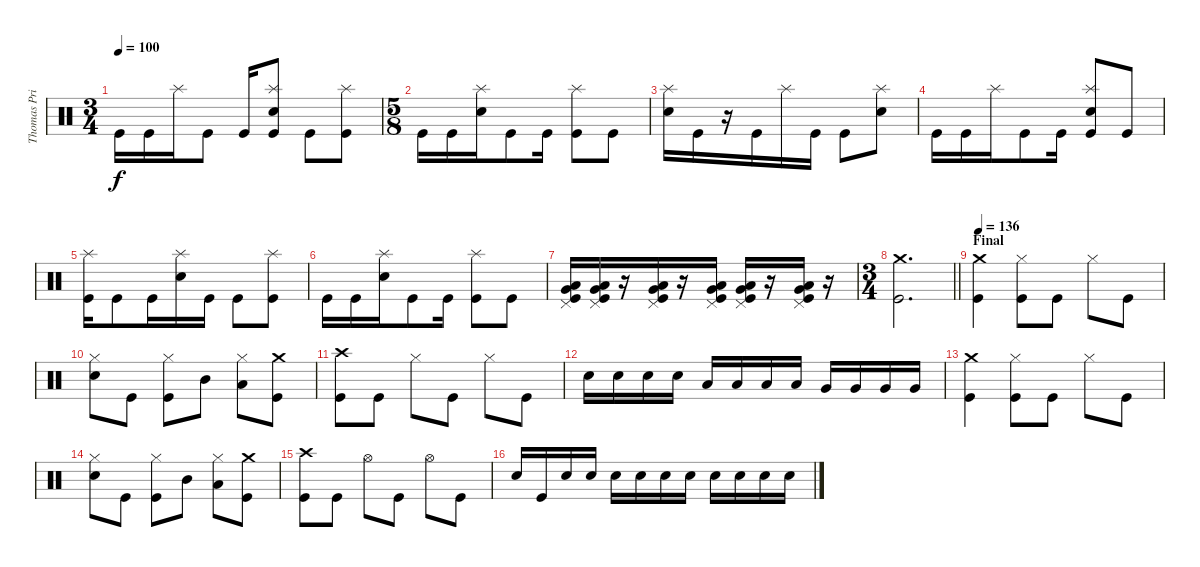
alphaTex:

\track ("Thomas Pridgen [Drum]" "Thomas Pri") {instrument percussion}
\staff {score}
\articulation defaults
\ts (3 4)
\tempo 100
\clef neutral
\ks c "Kick (hit)".16{dy f} "Kick (hit)".16 "Splash (hit)".16 "Kick (hit)".8 "Kick (hit)".16
("Splash (hit)" "Electric Snare (hit)" "Kick (hit)").8 "Kick (hit)".8 ("Splash (hit)" "Kick (hit)").8 |
\ts (5 8)
"Kick (hit)".16 "Kick (hit)".16 ("Splash (hit)" "Electric Snare (hit)").16 "Kick (hit)".8 "Kick (hit)".16 ("Splash (hit)" "Kick (hit)").8 "Kick (hit)".8 |
("Splash (hit)" "Electric Snare (hit)").16 "Kick (hit)".16 r.16 "Kick (hit)".16 "Splash (hit)".16 "Kick (hit)".16 "Kick (hit)".8 ("Splash (hit)" "Electric Snare (hit)").8 |
"Kick (hit)".16 "Kick (hit)".16 "Splash (hit)".16 "Kick (hit)".8 "Kick (hit)".16 ("Splash (hit)" "Electric Snare (hit)" "Kick (hit)").8 "Kick (hit)".8 |
("Splash (hit)" "Kick (hit)").16 "Kick (hit)".8 "Kick (hit)".16 ("Splash (hit)" "Electric Snare (hit)").16 "Kick (hit)".16 "Kick (hit)".8 ("Splash (hit)" "Kick (hit)").8 |
"Kick (hit)".16 "Kick (hit)".16 ("Splash (hit)" "Electric Snare (hit)").16 "Kick (hit)".8 "Kick (hit)".16 ("Splash (hit)" "Kick (hit)").8 "Kick (hit)".8 |
("Pedal Hi-Hat (hit)" "Low Tom (hit)" "Very Low Tom (hit)" "Kick (hit)").16 ("Pedal Hi-Hat (hit)" "Low Tom (hit)" "Very Low Tom (hit)" "Kick (hit)").16 r.16 ("Pedal Hi-Hat (hit)" "Low Tom (hit)" "Very Low Tom (hit)" "Kick (hit)").16 r.16 ("Pedal Hi-Hat (hit)" "Low Tom (hit)" "Very Low Tom (hit)" "Kick (hit)").16 ("Pedal Hi-Hat (hit)" "Low Tom (hit)" "Very Low Tom (hit)" "Kick (hit)").16 r.16 ("Pedal Hi-Hat (hit)" "Low Tom (hit)" "Very Low Tom (hit)" "Kick (hit)").16 r.16 |
\ts (3 4)
\barLineRight lightlight
("Crash medium (hit)" "Kick (hit)").2{d} |
\section ("" "Final")
\tempo 136
("Crash medium (hit)" "Kick (hit)").4 ("Hi-Hat (closed)" "Kick (hit)").8 "Kick (hit)".8 "Hi-Hat (closed)".8 "Kick (hit)".8 |
("Hi-Hat (closed)" "Electric Snare (hit)").8 "Kick (hit)".8 ("Hi-Hat (closed)" "Kick (hit)").8 "Mid Tom (hit)".8 ("Hi-Hat (closed)" "Low Tom (hit)").8 ("Crash medium (hit)" "Kick (hit)").8 |
("Crash high (hit)" "Kick (hit)").8 "Kick (hit)".8 "Hi-Hat (closed)".8 "Kick (hit)".8 "Hi-Hat (closed)".8 "Kick (hit)".8 |
"Electric Snare (hit)".16 "Electric Snare (hit)".16 "Electric Snare (hit)".16 "Electric Snare (hit)".16 "Low Tom (hit)".16 "Low Tom (hit)".16 "Low Tom (hit)".16 "Low Tom (hit)".16 "Very Low Tom (hit)".16 "Very Low Tom (hit)".16 "Very Low Tom (hit)".16 "Very Low Tom (hit)".16 |
("Crash medium (hit)" "Kick (hit)").4 ("Hi-Hat (closed)" "Kick (hit)").8 "Kick (hit)".8 "Hi-Hat (closed)".8 "Kick (hit)".8 |
("Hi-Hat (closed)" "Electric Snare (hit)").8 "Kick (hit)".8 ("Hi-Hat (closed)" "Kick (hit)").8 "Mid Tom (hit)".8 ("Hi-Hat (closed)" "Low Tom (hit)").8 ("Crash medium (hit)" "Kick (hit)").8 |
("Crash high (hit)" "Kick (hit)").8 "Kick (hit)".8 "Hi-Hat (open)".8 "Kick (hit)".8 "Hi-Hat (open)".8 "Kick (hit)".8 |
"Electric Snare (hit)".16 "Kick (hit)".16 "Electric Snare (hit)".16 "Electric Snare (hit)".16 "Electric Snare (hit)".16 "Electric Snare (hit)".16 "Electric Snare (hit)".16 "Electric Snare (hit)".16 "Electric Snare (hit)".16 "Electric Snare (hit)".16 "Electric Snare (hit)".16 "Electric Snare (hit)".16
